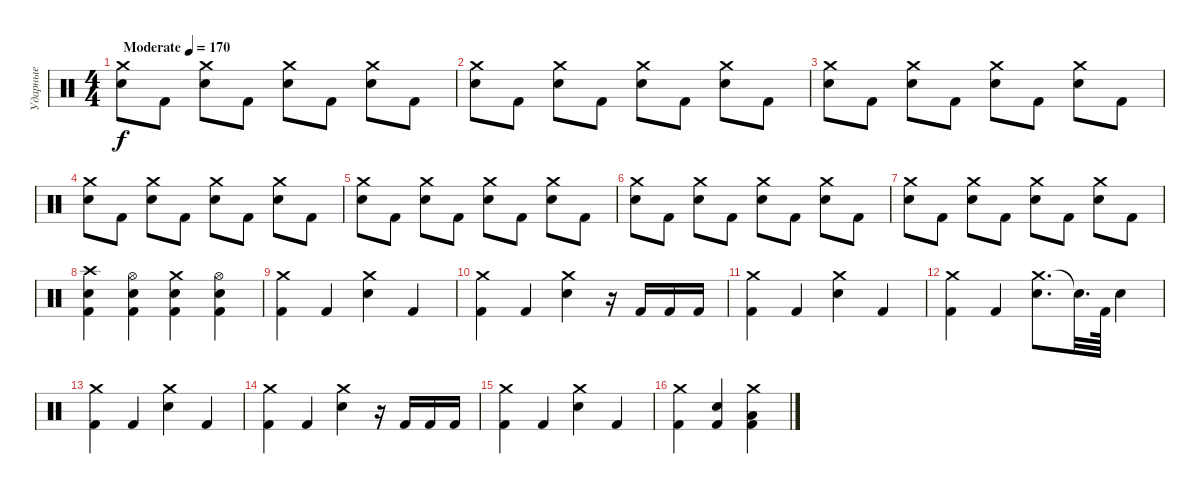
\track ("Ударные" "Ударные") {instrument percussion}
\staff {score}
\articulation defaults
\ts (4 4)
\tempo (170 "Moderate")
\clef neutral
\ks c
("Crash medium (hit)" "Snare (hit) 2").8{dy f} "Kick (hit) 2".8 ("Crash medium (hit)" "Snare (hit) 2").8 "Kick (hit) 2".8 ("Crash medium (hit)" "Snare (hit) 2").8 "Kick (hit) 2".8 ("Crash medium (hit)" "Snare (hit) 2").8 "Kick (hit) 2".8 |
("Crash medium (hit)" "Snare (hit) 2").8 "Kick (hit) 2".8 ("Crash medium (hit)" "Snare (hit) 2").8 "Kick (hit) 2".8 ("Crash medium (hit)" "Snare (hit) 2").8 "Kick (hit) 2".8 ("Crash medium (hit)" "Snare (hit) 2").8 "Kick (hit) 2".8 |
("Crash medium (hit)" "Snare (hit) 2").8 "Kick (hit) 2".8 ("Crash medium (hit)" "Snare (hit) 2").8 "Kick (hit) 2".8 ("Crash medium (hit)" "Snare (hit) 2").8 "Kick (hit) 2".8 ("Crash medium (hit)" "Snare (hit) 2").8 "Kick (hit) 2".8 |
("Crash medium (hit)" "Snare (hit) 2").8 "Kick (hit) 2".8 ("Crash medium (hit)" "Snare (hit) 2").8 "Kick (hit) 2".8 ("Crash medium (hit)" "Snare (hit) 2").8 "Kick (hit) 2".8 ("Crash medium (hit)" "Snare (hit) 2").8 "Kick (hit) 2".8 |
("Crash medium (hit)" "Snare (hit) 2").8 "Kick (hit) 2".8 ("Crash medium (hit)" "Snare (hit) 2").8 "Kick (hit) 2".8 ("Crash medium (hit)" "Snare (hit) 2").8 "Kick (hit) 2".8 ("Crash medium (hit)" "Snare (hit) 2").8 "Kick (hit) 2".8 |
("Crash medium (hit)" "Snare (hit) 2").8 "Kick (hit) 2".8 ("Crash medium (hit)" "Snare (hit) 2").8 "Kick (hit) 2".8 ("Crash medium (hit)" "Snare (hit) 2").8 "Kick (hit) 2".8 ("Crash medium (hit)" "Snare (hit) 2").8 "Kick (hit) 2".8 |
("Crash medium (hit)" "Snare (hit) 2").8 "Kick (hit) 2".8 ("Crash medium (hit)" "Snare (hit) 2").8 "Kick (hit) 2".8 ("Crash medium (hit)" "Snare (hit) 2").8 "Kick (hit) 2".8 ("Crash medium (hit)" "Snare (hit) 2").8 "Kick (hit) 2".8 |
("Crash high (hit)" "Snare (hit) 2" "Kick (hit) 2").4 ("Hi-Hat (open)" "Snare (hit) 2" "Kick (hit) 2").4 ("Crash medium (hit)" "Snare (hit) 2" "Kick (hit) 2").4 ("Hi-Hat (open)" "Snare (hit) 2" "Kick (hit) 2").4 |
("Crash medium (hit)" "Kick (hit) 2").4 "Kick (hit) 2".4 ("Crash medium (hit)" "Snare (hit) 2").4 "Kick (hit) 2".4 |
("Crash medium (hit)" "Kick (hit) 2").4 "Kick (hit) 2".4 ("Crash medium (hit)" "Snare (hit) 2").4 r.16 "Kick (hit) 2".16 "Kick (hit) 2".16 "Kick (hit) 2".16 |
("Crash medium (hit)" "Kick (hit) 2").4 "Kick (hit) 2".4 ("Crash medium (hit)" "Snare (hit) 2").4 "Kick (hit) 2".4 |
("Crash medium (hit)" "Kick (hit) 2").4 "Kick (hit) 2".4 ("Crash medium (hit)" "Snare (hit) 2").8{d} "Snare (hit)"{t}.32{d} "Kick (hit) 2".64 "Snare (hit) 2".4 |
("Crash medium (hit)" "Kick (hit) 2").4 "Kick (hit) 2".4 ("Crash medium (hit)" "Snare (hit) 2").4 "Kick (hit) 2".4 |
("Crash medium (hit)" "Kick (hit) 2").4 "Kick (hit) 2".4 ("Crash medium (hit)" "Snare (hit) 2").4 r.16 "Kick (hit) 2".16 "Kick (hit) 2".16 "Kick (hit) 2".16 |
("Crash medium (hit)" "Kick (hit) 2").4 "Kick (hit) 2".4 ("Crash medium (hit)" "Snare (hit) 2").4 "Kick (hit) 2".4 |
("Crash medium (hit)" "Kick (hit) 2").4 ("Snare (hit) 2" "Kick (hit) 2").4 ("Crash medium (hit)" "Low Floor Tom (hit)" "Kick (hit) 2").4
